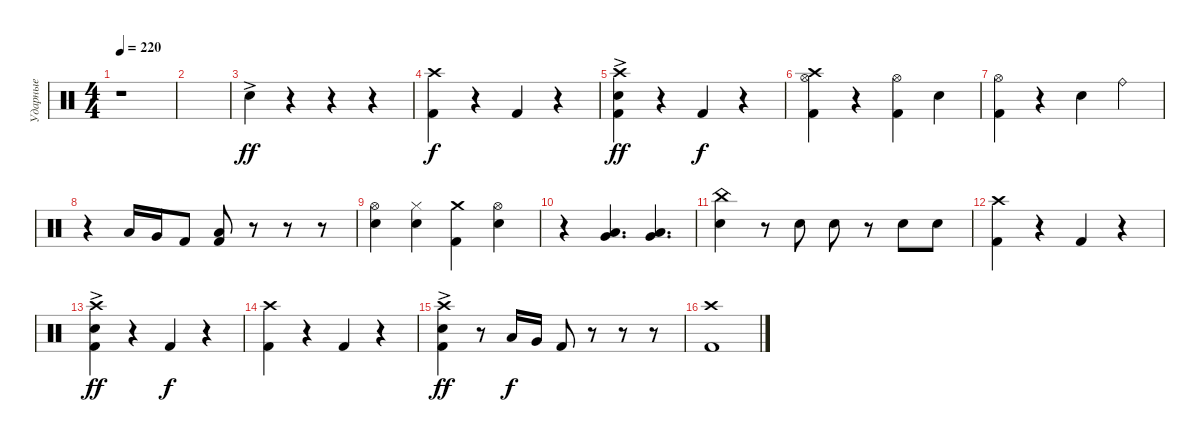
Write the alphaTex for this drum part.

\track ("Ударные" "Ударные") {instrument percussion}
\staff {score}
\articulation defaults
\ts (4 4)
\tempo 220
\clef neutral
\ks c
r.1{dy f} |
|
"Electric Snare (hit)"{ac}.4{dy ff} r.4 r.4 r.4 |
("Kick (hit) 2" "Crash high (hit)").4{dy f} r.4 "Kick (hit) 2".4 r.4 |
("Kick (hit) 2" "Electric Snare (hit)"{ac} "Crash high (hit)").4{dy ff} r.4 "Kick (hit) 2".4{dy f} r.4 |
("Kick (hit) 2" "Hi-Hat (open)" "Crash high (hit)").4 r.4 ("Kick (hit) 2" "Hi-Hat (open)").4 "Electric Snare (hit)".4 |
("Kick (hit) 2" "Hi-Hat (open)").4 r.4 "Electric Snare (hit)".4 "Ride (bell)".4 |
r.4 "Low Tom (hit)".16 "Very Low Tom (hit)".16 "Kick (hit) 2".8 ("Kick (hit) 2" "Low Floor Tom (hit)").8 r.8 r.8 r.8 |
("Electric Snare (hit)" "Hi-Hat (open)").4 ("Electric Snare (hit)" "Hi-Hat (closed)").4 ("Kick (hit) 2" "Crash medium (hit)").4 ("Electric Snare (hit)" "Hi-Hat (open)").4 |
r.4 ("Low Floor Tom (hit)" "Very Low Tom (hit)").4{d} ("Low Floor Tom (hit)" "Very Low Tom (hit)").4{d} |
("Electric Snare (hit)" "China (hit)").4 r.8 "Electric Snare (hit)".8 "Electric Snare (hit)".8 r.8 "Electric Snare (hit)".8 "Electric Snare (hit)".8 |
("Kick (hit) 2" "Crash high (hit)").4 r.4 "Kick (hit) 2".4 r.4 |
("Kick (hit) 2" "Electric Snare (hit)"{ac} "Crash high (hit)").4{dy ff} r.4 "Kick (hit) 2".4{dy f} r.4 |
("Kick (hit) 2" "Crash high (hit)").4 r.4 "Kick (hit) 2".4 r.4 |
("Kick (hit) 2" "Electric Snare (hit)"{ac} "Crash high (hit)").4{dy ff} r.8 "Low Tom (hit)".16{dy f} "Very Low Tom (hit)".16 "Kick (hit) 2".8 r.8 r.8 r.8 |
("Kick (hit) 2" "Crash high (hit)").1
